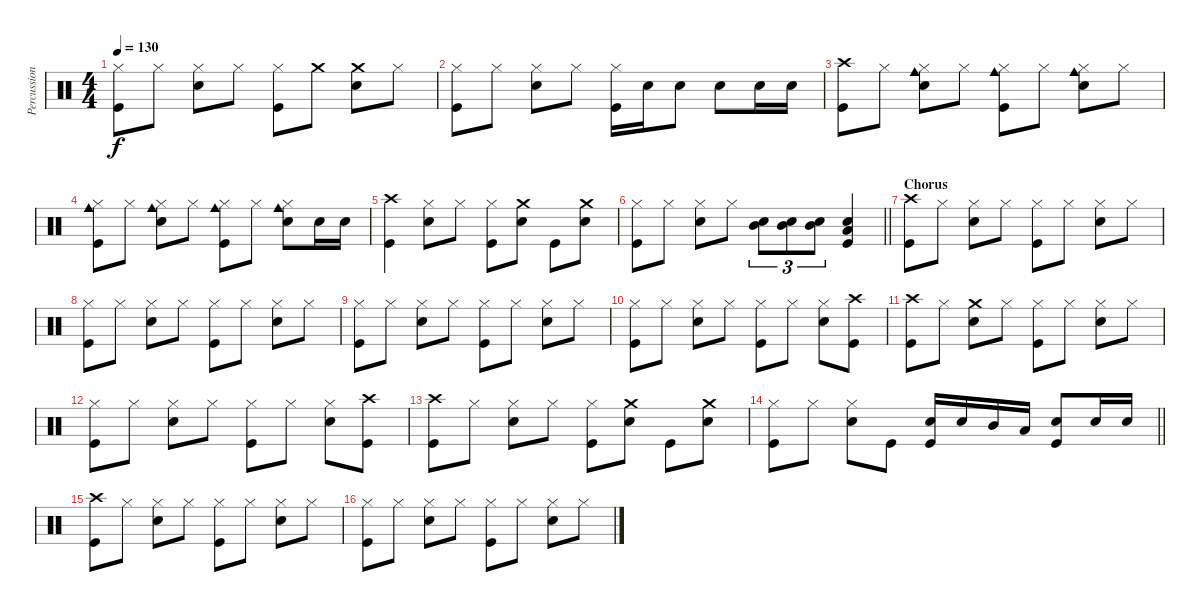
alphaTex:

\track ("Percussions" "Percussion") {instrument percussion}
\staff {score}
\articulation defaults
\ts (4 4)
\tempo 130
\clef neutral
\ks c
("Hi-Hat (closed)" "Kick (hit)").8{dy f} "Hi-Hat (closed)".8 ("Hi-Hat (closed)" "Snare (hit) 2").8 "Hi-Hat (closed)".8 ("Hi-Hat (closed)" "Kick (hit)").8 "Crash medium (hit)".8 ("Crash medium (hit)" "Snare (hit) 2").8 "Hi-Hat (closed)".8 |
("Hi-Hat (closed)" "Kick (hit)").8 "Hi-Hat (closed)".8 ("Hi-Hat (closed)" "Snare (hit) 2").8 "Hi-Hat (closed)".8 ("Hi-Hat (closed)" "Kick (hit)").16 "Snare (hit) 2".16 "Snare (hit) 2".8 "Snare (hit) 2".8 "Snare (hit) 2".16 "Snare (hit) 2".16 |
("Crash high (hit)" "Kick (hit)").8 "Hi-Hat (closed)".8 ("Cowbell medium (hit)" "Hi-Hat (closed)" "Snare (hit) 2").8 "Hi-Hat (closed)".8 ("Cowbell medium (hit)" "Hi-Hat (closed)" "Kick (hit)").8 "Hi-Hat (closed)".8 ("Cowbell medium (hit)" "Hi-Hat (closed)" "Snare (hit) 2").8 "Hi-Hat (closed)".8 |
("Cowbell medium (hit)" "Hi-Hat (closed)" "Kick (hit)").8 "Hi-Hat (closed)".8 ("Cowbell medium (hit)" "Hi-Hat (closed)" "Snare (hit) 2").8 "Hi-Hat (closed)".8 ("Cowbell medium (hit)" "Hi-Hat (closed)" "Kick (hit)").8 "Hi-Hat (closed)".8 ("Cowbell medium (hit)" "Hi-Hat (closed)" "Snare (hit) 2").8 "Snare (hit) 2".16 "Snare (hit) 2".16 |
("Crash high (hit)" "Kick (hit)").4 ("Hi-Hat (closed)" "Snare (hit) 2").8 "Hi-Hat (closed)".8 ("Hi-Hat (closed)" "Kick (hit)").8 ("Crash medium (hit)" "Snare (hit) 2").8 "Kick (hit)".8 ("Crash medium (hit)" "Snare (hit) 2").8 |
\barLineRight lightlight
("Hi-Hat (closed)" "Kick (hit)").8 "Hi-Hat (closed)".8 ("Hi-Hat (closed)" "Snare (hit) 2").8 "Hi-Hat (closed)".8 ("Mid Tom (hit)" "Snare (hit) 2").8{tu (3 2)} ("Mid Tom (hit)" "Snare (hit) 2").8{tu (3 2)} ("Mid Tom (hit)" "Snare (hit) 2").8{tu (3 2)} ("Low Tom (hit)" "Snare (hit) 2" "Kick (hit)").4 |
\section ("" "Chorus")
("Crash high (hit)" "Kick (hit)").8 "Hi-Hat (closed)".8 ("Hi-Hat (closed)" "Snare (hit) 2").8 "Hi-Hat (closed)".8 ("Hi-Hat (closed)" "Kick (hit)").8 "Hi-Hat (closed)".8 ("Hi-Hat (closed)" "Snare (hit) 2").8 "Hi-Hat (closed)".8 |
("Hi-Hat (closed)" "Kick (hit)").8 "Hi-Hat (closed)".8 ("Hi-Hat (closed)" "Snare (hit) 2").8 "Hi-Hat (closed)".8 ("Hi-Hat (closed)" "Kick (hit)").8 "Hi-Hat (closed)".8 ("Hi-Hat (closed)" "Snare (hit) 2").8 "Hi-Hat (closed)".8 |
("Hi-Hat (closed)" "Kick (hit)").8 "Hi-Hat (closed)".8 ("Hi-Hat (closed)" "Snare (hit) 2").8 "Hi-Hat (closed)".8 ("Hi-Hat (closed)" "Kick (hit)").8 "Hi-Hat (closed)".8 ("Hi-Hat (closed)" "Snare (hit) 2").8 "Hi-Hat (closed)".8 |
("Hi-Hat (closed)" "Kick (hit)").8 "Hi-Hat (closed)".8 ("Hi-Hat (closed)" "Snare (hit) 2").8 "Hi-Hat (closed)".8 ("Hi-Hat (closed)" "Kick (hit)").8 "Hi-Hat (closed)".8 ("Hi-Hat (closed)" "Snare (hit) 2").8 ("Crash high (hit)" "Kick (hit)").8 |
("Crash high (hit)" "Kick (hit)").8 "Hi-Hat (closed)".8 ("Crash medium (hit)" "Snare (hit) 2").8 "Hi-Hat (closed)".8 ("Hi-Hat (closed)" "Kick (hit)").8 "Hi-Hat (closed)".8 ("Hi-Hat (closed)" "Snare (hit) 2").8 "Hi-Hat (closed)".8 |
("Hi-Hat (closed)" "Kick (hit)").8 "Hi-Hat (closed)".8 ("Hi-Hat (closed)" "Snare (hit) 2").8 "Hi-Hat (closed)".8 ("Hi-Hat (closed)" "Kick (hit)").8 "Hi-Hat (closed)".8 ("Hi-Hat (closed)" "Snare (hit) 2").8 ("Crash high (hit)" "Kick (hit)").8 |
("Crash high (hit)" "Kick (hit)").8 "Hi-Hat (closed)".8 ("Hi-Hat (closed)" "Snare (hit) 2").8 "Hi-Hat (closed)".8 ("Hi-Hat (closed)" "Kick (hit)").8 ("Crash medium (hit)" "Snare (hit) 2").8 "Kick (hit)".8 ("Crash medium (hit)" "Snare (hit) 2").8 |
\barLineRight lightlight
("Hi-Hat (closed)" "Kick (hit)").8 "Hi-Hat (closed)".8 ("Hi-Hat (closed)" "Snare (hit) 2").8 "Kick (hit)".8 ("Snare (hit) 2" "Kick (hit)").16 "Snare (hit) 2".16 "Mid Tom (hit)".16 "Low Tom (hit)".16 ("Snare (hit) 2" "Kick (hit)").8 "Snare (hit) 2".16 "Snare (hit) 2".16 |
("Crash high (hit)" "Kick (hit)").8 "Hi-Hat (closed)".8 ("Hi-Hat (closed)" "Snare (hit) 2").8 "Hi-Hat (closed)".8 ("Hi-Hat (closed)" "Kick (hit)").8 "Hi-Hat (closed)".8 ("Hi-Hat (closed)" "Snare (hit) 2").8 "Hi-Hat (closed)".8 |
("Hi-Hat (closed)" "Kick (hit)").8 "Hi-Hat (closed)".8 ("Hi-Hat (closed)" "Snare (hit) 2").8 "Hi-Hat (closed)".8 ("Hi-Hat (closed)" "Kick (hit)").8 "Hi-Hat (closed)".8 ("Hi-Hat (closed)" "Snare (hit) 2").8 "Hi-Hat (closed)".8
